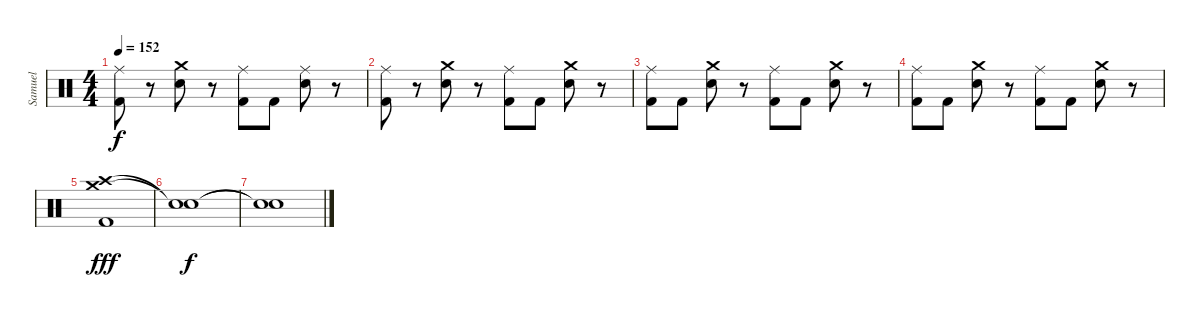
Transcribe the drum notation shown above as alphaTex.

\track ("Samuel" "Samuel") {instrument percussion}
\staff {score}
\articulation defaults
\ts (4 4)
\tempo 152
\clef neutral
\ks c
("Ride (middle)" "Kick (hit) 2").8{dy f} r.8 ("Crash medium (hit)" "Snare (hit) 2").8 r.8 ("Ride (middle)" "Kick (hit) 2").8 "Kick (hit) 2".8 ("Ride (middle)" "Snare (hit) 2").8 r.8 |
("Ride (middle)" "Kick (hit) 2").8 r.8 ("Crash medium (hit)" "Snare (hit) 2").8 r.8 ("Ride (middle)" "Kick (hit) 2").8 "Kick (hit) 2".8 ("Crash medium (hit)" "Snare (hit) 2").8 r.8 |
("Ride (middle)" "Kick (hit) 2").8 "Kick (hit) 2".8 ("Crash medium (hit)" "Snare (hit) 2").8 r.8 ("Ride (middle)" "Kick (hit) 2").8 "Kick (hit) 2".8 ("Crash medium (hit)" "Snare (hit) 2").8 r.8 |
("Ride (middle)" "Kick (hit) 2").8 "Kick (hit) 2".8 ("Crash medium (hit)" "Snare (hit) 2").8 r.8 ("Ride (middle)" "Kick (hit) 2").8 "Kick (hit) 2".8 ("Crash medium (hit)" "Snare (hit) 2").8 r.8 |
("Crash high (hit)" "Crash medium (hit)" "Kick (hit) 2").1{dy fff} |
("Snare (hit)"{t} "Snare (hit)"{t}).1{dy f} |
("Snare (hit)"{t} "Snare (hit)"{t}).1
